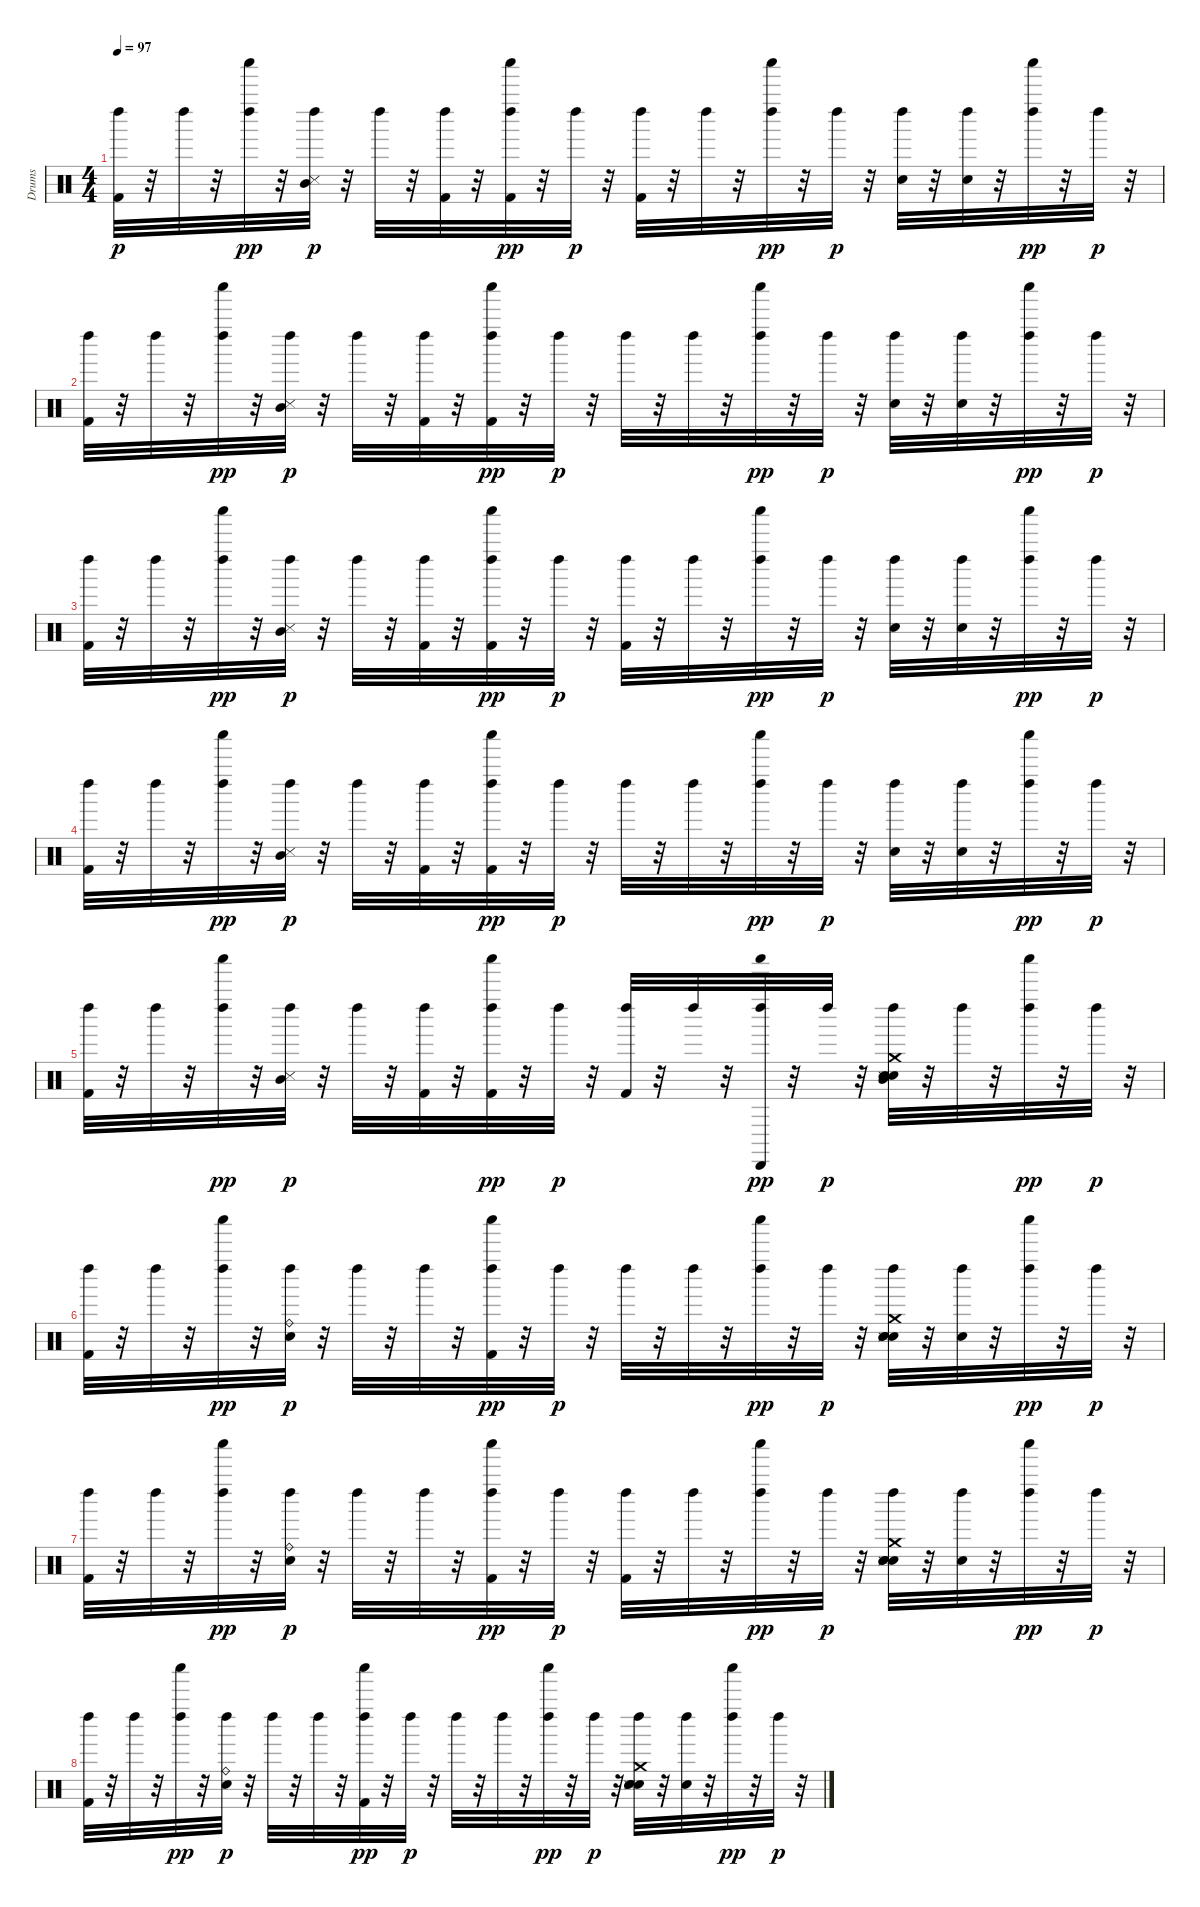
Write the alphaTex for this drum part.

\track ("Drums" "Drums") {instrument percussion}
\staff {score}
\articulation defaults
\ts (4 4)
\tempo 97
\clef neutral
\ks c
("Kick (hit) 2" "Left Maraca (hit)").32{dy p} r.32 "Left Maraca (hit)".32 r.32 ("Shaker (hit)" "Left Maraca (hit)").32{dy pp} r.32 ("Mid Tom (hit)" "Snare (side stick) 3" "Left Maraca (hit)").32{dy p} r.32 "Left Maraca (hit)".32 r.32 ("Kick (hit) 2" "Left Maraca (hit)").32 r.32 ("Kick (hit) 2" "Shaker (hit)" "Left Maraca (hit)").32{dy pp} r.32 "Left Maraca (hit)".32{dy p} r.32 ("Kick (hit) 2" "Left Maraca (hit)").32 r.32 "Left Maraca (hit)".32 r.32 ("Shaker (hit)" "Left Maraca (hit)").32{dy pp} r.32 "Left Maraca (hit)".32{dy p} r.32 ("Hand Clap (hit)" "Left Maraca (hit)").32 r.32 ("Left Maraca (hit)" "Hand Clap (hit)").32 r.32 ("Shaker (hit)" "Left Maraca (hit)").32{dy pp} r.32 "Left Maraca (hit)".32{dy p} r.32 |
("Kick (hit) 2" "Left Maraca (hit)").32 r.32 "Left Maraca (hit)".32 r.32 ("Shaker (hit)" "Left Maraca (hit)").32{dy pp} r.32 ("Mid Tom (hit)" "Snare (side stick) 3" "Left Maraca (hit)").32{dy p} r.32 "Left Maraca (hit)".32 r.32 ("Kick (hit) 2" "Left Maraca (hit)").32 r.32 ("Kick (hit) 2" "Shaker (hit)" "Left Maraca (hit)").32{dy pp} r.32 "Left Maraca (hit)".32{dy p} r.32 "Left Maraca (hit)".32 r.32 "Left Maraca (hit)".32 r.32 ("Shaker (hit)" "Left Maraca (hit)").32{dy pp} r.32 "Left Maraca (hit)".32{dy p} r.32 ("Hand Clap (hit)" "Left Maraca (hit)").32 r.32 ("Left Maraca (hit)" "Hand Clap (hit)").32 r.32 ("Shaker (hit)" "Left Maraca (hit)").32{dy pp} r.32 "Left Maraca (hit)".32{dy p} r.32 |
("Kick (hit) 2" "Left Maraca (hit)").32 r.32 "Left Maraca (hit)".32 r.32 ("Shaker (hit)" "Left Maraca (hit)").32{dy pp} r.32 ("Mid Tom (hit)" "Snare (side stick) 3" "Left Maraca (hit)").32{dy p} r.32 "Left Maraca (hit)".32 r.32 ("Kick (hit) 2" "Left Maraca (hit)").32 r.32 ("Kick (hit) 2" "Shaker (hit)" "Left Maraca (hit)").32{dy pp} r.32 "Left Maraca (hit)".32{dy p} r.32 ("Kick (hit) 2" "Left Maraca (hit)").32 r.32 "Left Maraca (hit)".32 r.32 ("Shaker (hit)" "Left Maraca (hit)").32{dy pp} r.32 "Left Maraca (hit)".32{dy p} r.32 ("Hand Clap (hit)" "Left Maraca (hit)").32 r.32 ("Left Maraca (hit)" "Hand Clap (hit)").32 r.32 ("Shaker (hit)" "Left Maraca (hit)").32{dy pp} r.32 "Left Maraca (hit)".32{dy p} r.32 |
("Kick (hit) 2" "Left Maraca (hit)").32 r.32 "Left Maraca (hit)".32 r.32 ("Shaker (hit)" "Left Maraca (hit)").32{dy pp} r.32 ("Mid Tom (hit)" "Snare (side stick) 3" "Left Maraca (hit)").32{dy p} r.32 "Left Maraca (hit)".32 r.32 ("Kick (hit) 2" "Left Maraca (hit)").32 r.32 ("Kick (hit) 2" "Shaker (hit)" "Left Maraca (hit)").32{dy pp} r.32 "Left Maraca (hit)".32{dy p} r.32 "Left Maraca (hit)".32 r.32 "Left Maraca (hit)".32 r.32 ("Shaker (hit)" "Left Maraca (hit)").32{dy pp} r.32 "Left Maraca (hit)".32{dy p} r.32 ("Hand Clap (hit)" "Left Maraca (hit)").32 r.32 ("Left Maraca (hit)" "Hand Clap (hit)").32 r.32 ("Shaker (hit)" "Left Maraca (hit)").32{dy pp} r.32 "Left Maraca (hit)".32{dy p} r.32 |
("Kick (hit) 2" "Left Maraca (hit)").32 r.32 "Left Maraca (hit)".32 r.32 ("Shaker (hit)" "Left Maraca (hit)").32{dy pp} r.32 ("Mid Tom (hit)" "Snare (side stick) 3" "Left Maraca (hit)").32{dy p} r.32 "Left Maraca (hit)".32 r.32 ("Kick (hit) 2" "Left Maraca (hit)").32 r.32 ("Kick (hit) 2" "Shaker (hit)" "Left Maraca (hit)").32{dy pp} r.32 "Left Maraca (hit)".32{dy p} r.32 ("Kick (hit) 2" "Left Maraca (hit)").32 r.32 "Left Maraca (hit)".32 r.32 ("Cabasa (hit)" "Shaker (hit)" "Left Maraca (hit)").32{dy pp} r.32 "Left Maraca (hit)".32{dy p} r.32 ("Snare (hit) 2" "Electric Snare (hit)" "Mid Tom (hit)" "Snare (side stick) 3" "Crash medium (hit)" "Left Maraca (hit)").32 r.32 "Left Maraca (hit)".32 r.32 ("Shaker (hit)" "Left Maraca (hit)").32{dy pp} r.32 "Left Maraca (hit)".32{dy p} r.32 |
("Left Maraca (hit)" "Kick (hit) 2").32 r.32 "Left Maraca (hit)".32 r.32 ("Shaker (hit)" "Left Maraca (hit)").32{dy pp} r.32 ("Ride (bell)" "Snare (hit) 2" "Left Maraca (hit)").32{dy p} r.32 "Left Maraca (hit)".32 r.32 "Left Maraca (hit)".32 r.32 ("Kick (hit) 2" "Shaker (hit)" "Left Maraca (hit)").32{dy pp} r.32 "Left Maraca (hit)".32{dy p} r.32 "Left Maraca (hit)".32 r.32 "Left Maraca (hit)".32 r.32 ("Shaker (hit)" "Left Maraca (hit)").32{dy pp} r.32 "Left Maraca (hit)".32{dy p} r.32 ("Snare (hit) 2" "Electric Snare (hit)" "Hand Clap (hit)" "Snare (side stick) 3" "Crash medium (hit)" "Left Maraca (hit)").32 r.32 ("Left Maraca (hit)" "Hand Clap (hit)").32 r.32 ("Shaker (hit)" "Left Maraca (hit)").32{dy pp} r.32 "Left Maraca (hit)".32{dy p} r.32 |
("Kick (hit) 2" "Left Maraca (hit)").32 r.32 "Left Maraca (hit)".32 r.32 ("Shaker (hit)" "Left Maraca (hit)").32{dy pp} r.32 ("Ride (bell)" "Snare (hit) 2" "Left Maraca (hit)").32{dy p} r.32 "Left Maraca (hit)".32 r.32 "Left Maraca (hit)".32 r.32 ("Kick (hit) 2" "Shaker (hit)" "Left Maraca (hit)").32{dy pp} r.32 "Left Maraca (hit)".32{dy p} r.32 ("Kick (hit) 2" "Left Maraca (hit)").32 r.32 "Left Maraca (hit)".32 r.32 ("Shaker (hit)" "Left Maraca (hit)").32{dy pp} r.32 "Left Maraca (hit)".32{dy p} r.32 ("Snare (hit) 2" "Electric Snare (hit)" "Hand Clap (hit)" "Snare (side stick) 3" "Crash medium (hit)" "Left Maraca (hit)").32 r.32 ("Left Maraca (hit)" "Hand Clap (hit)").32 r.32 ("Shaker (hit)" "Left Maraca (hit)").32{dy pp} r.32 "Left Maraca (hit)".32{dy p} r.32 |
("Kick (hit) 2" "Left Maraca (hit)").32 r.32 "Left Maraca (hit)".32 r.32 ("Shaker (hit)" "Left Maraca (hit)").32{dy pp} r.32 ("Ride (bell)" "Snare (hit) 2" "Left Maraca (hit)").32{dy p} r.32 "Left Maraca (hit)".32 r.32 "Left Maraca (hit)".32 r.32 ("Kick (hit) 2" "Shaker (hit)" "Left Maraca (hit)").32{dy pp} r.32 "Left Maraca (hit)".32{dy p} r.32 "Left Maraca (hit)".32 r.32 "Left Maraca (hit)".32 r.32 ("Shaker (hit)" "Left Maraca (hit)").32{dy pp} r.32 "Left Maraca (hit)".32{dy p} r.32 ("Snare (hit) 2" "Electric Snare (hit)" "Hand Clap (hit)" "Snare (side stick) 3" "Crash medium (hit)" "Left Maraca (hit)").32 r.32 ("Left Maraca (hit)" "Hand Clap (hit)").32 r.32 ("Shaker (hit)" "Left Maraca (hit)").32{dy pp} r.32 "Left Maraca (hit)".32{dy p} r.32
